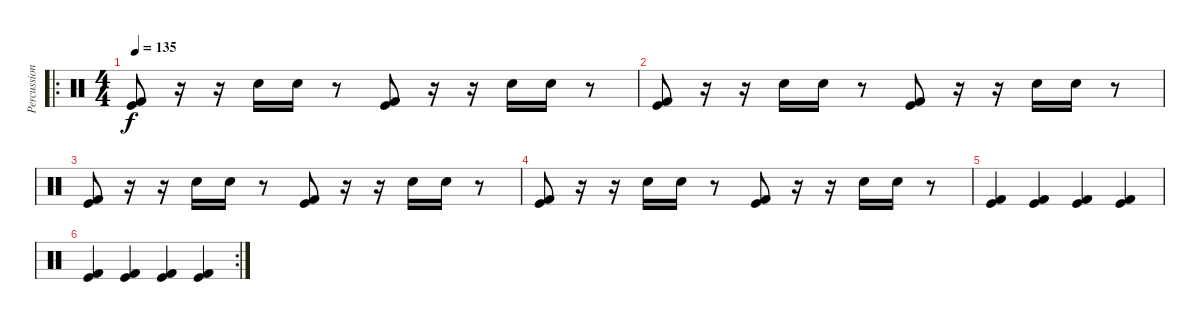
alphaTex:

\track ("Percussion" "Percussion") {instrument percussion}
\staff {score}
\articulation defaults
\ro
\ts (4 4)
\tempo 135
\clef neutral
\ks c
("Kick (hit) 2" "Kick (hit)").8{dy f} r.16 r.16 "Electric Snare (hit)".16 "Electric Snare (hit)".16 r.8 ("Kick (hit) 2" "Kick (hit)").8 r.16 r.16 "Electric Snare (hit)".16 "Electric Snare (hit)".16 r.8 |
("Kick (hit) 2" "Kick (hit)").8 r.16 r.16 "Electric Snare (hit)".16 "Electric Snare (hit)".16 r.8 ("Kick (hit) 2" "Kick (hit)").8 r.16 r.16 "Electric Snare (hit)".16 "Electric Snare (hit)".16 r.8 |
("Kick (hit) 2" "Kick (hit)").8 r.16 r.16 "Electric Snare (hit)".16 "Electric Snare (hit)".16 r.8 ("Kick (hit) 2" "Kick (hit)").8 r.16 r.16 "Electric Snare (hit)".16 "Electric Snare (hit)".16 r.8 |
("Kick (hit) 2" "Kick (hit)").8 r.16 r.16 "Electric Snare (hit)".16 "Electric Snare (hit)".16 r.8 ("Kick (hit) 2" "Kick (hit)").8 r.16 r.16 "Electric Snare (hit)".16 "Electric Snare (hit)".16 r.8 |
("Kick (hit) 2" "Kick (hit)").4 ("Kick (hit) 2" "Kick (hit)").4 ("Kick (hit) 2" "Kick (hit)").4 ("Kick (hit) 2" "Kick (hit)").4 |
\rc 2
("Kick (hit) 2" "Kick (hit)").4 ("Kick (hit) 2" "Kick (hit)").4 ("Kick (hit) 2" "Kick (hit)").4 ("Kick (hit) 2" "Kick (hit)").4
